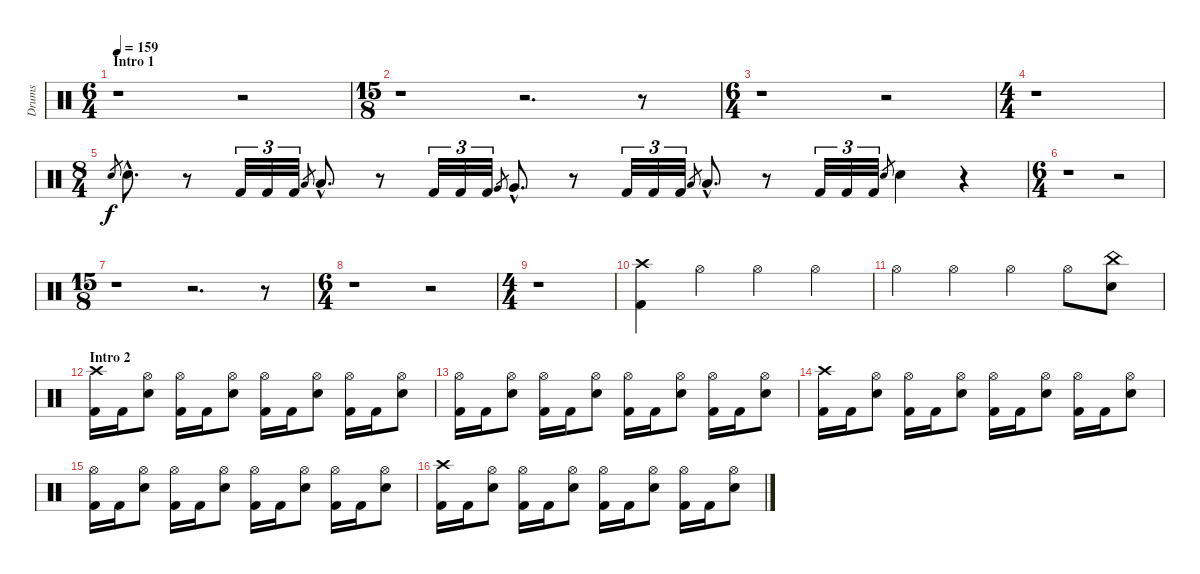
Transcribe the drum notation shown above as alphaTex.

\track ("Drums" "Drums") {instrument percussion}
\staff {score}
\articulation defaults
\ts (6 4)
\section ("" "Intro 1")
\tempo 159
\clef neutral
\ks c
r.1{dy f} r.2 |
\ts (15 8)
r.1 r.2{d} r.8 |
\ts (6 4)
r.1 r.2 |
\ts (4 4)
r.1 |
\ts (8 4)
"Electric Snare (hit)".8{gr} "Electric Snare (hit)"{hac}.8{d} r.8 "Kick (hit) 2".32{tu (3 2)} "Kick (hit) 2".32{tu (3 2)} "Kick (hit) 2".32{tu (3 2)} "Low Tom (hit)".8{gr} "Low Tom (hit)"{hac}.8{d} r.8 "Kick (hit) 2".32{tu (3 2)} "Kick (hit) 2".32{tu (3 2)} "Kick (hit) 2".32{tu (3 2)} "Very Low Tom (hit)".8{gr} "Very Low Tom (hit)"{hac}.8{d} r.8 "Kick (hit) 2".32{tu (3 2)} "Kick (hit) 2".32{tu (3 2)} "Kick (hit) 2".32{tu (3 2)} "Low Floor Tom (hit)".8{gr} "Low Floor Tom (hit)"{hac}.8{d} r.8 "Kick (hit) 2".32{tu (3 2)} "Kick (hit) 2".32{tu (3 2)} "Kick (hit) 2".32{tu (3 2)} "Electric Snare (hit)".8{gr} "Electric Snare (hit)".4 r.4 |
\ts (6 4)
r.1 r.2 |
\ts (15 8)
r.1 r.2{d} r.8 |
\ts (6 4)
r.1 r.2 |
\ts (4 4)
r.1 |
\section ("" "")
("Crash high (hit)" "Kick (hit) 2").4 "Hi-Hat (open)".4 "Hi-Hat (open)".4 "Hi-Hat (open)".4 |
"Hi-Hat (open)".4 "Hi-Hat (open)".4 "Hi-Hat (open)".4 "Hi-Hat (open)".8 ("China (hit)" "Electric Snare (hit)").8 |
\section ("" "Intro 2")
("Crash high (hit)" "Kick (hit) 2").16 "Kick (hit) 2".16 ("Hi-Hat (open)" "Electric Snare (hit)").8 ("Hi-Hat (open)" "Kick (hit) 2").16 "Kick (hit) 2".16 ("Hi-Hat (open)" "Electric Snare (hit)").8 ("Hi-Hat (open)" "Kick (hit) 2").16 "Kick (hit) 2".16 ("Hi-Hat (open)" "Electric Snare (hit)").8 ("Hi-Hat (open)" "Kick (hit) 2").16 "Kick (hit) 2".16 ("Hi-Hat (open)" "Electric Snare (hit)").8 |
("Hi-Hat (open)" "Kick (hit) 2").16 "Kick (hit) 2".16 ("Hi-Hat (open)" "Electric Snare (hit)").8 ("Hi-Hat (open)" "Kick (hit) 2").16 "Kick (hit) 2".16 ("Hi-Hat (open)" "Electric Snare (hit)").8 ("Hi-Hat (open)" "Kick (hit) 2").16 "Kick (hit) 2".16 ("Hi-Hat (open)" "Electric Snare (hit)").8 ("Hi-Hat (open)" "Kick (hit) 2").16 "Kick (hit) 2".16 ("Hi-Hat (open)" "Electric Snare (hit)").8 |
("Crash high (hit)" "Kick (hit) 2").16 "Kick (hit) 2".16 ("Hi-Hat (open)" "Electric Snare (hit)").8 ("Hi-Hat (open)" "Kick (hit) 2").16 "Kick (hit) 2".16 ("Hi-Hat (open)" "Electric Snare (hit)").8 ("Hi-Hat (open)" "Kick (hit) 2").16 "Kick (hit) 2".16 ("Hi-Hat (open)" "Electric Snare (hit)").8 ("Hi-Hat (open)" "Kick (hit) 2").16 "Kick (hit) 2".16 ("Hi-Hat (open)" "Electric Snare (hit)").8 |
("Hi-Hat (open)" "Kick (hit) 2").16 "Kick (hit) 2".16 ("Hi-Hat (open)" "Electric Snare (hit)").8 ("Hi-Hat (open)" "Kick (hit) 2").16 "Kick (hit) 2".16 ("Hi-Hat (open)" "Electric Snare (hit)").8 ("Hi-Hat (open)" "Kick (hit) 2").16 "Kick (hit) 2".16 ("Hi-Hat (open)" "Electric Snare (hit)").8 ("Hi-Hat (open)" "Kick (hit) 2").16 "Kick (hit) 2".16 ("Hi-Hat (open)" "Electric Snare (hit)").8 |
("Crash high (hit)" "Kick (hit) 2").16 "Kick (hit) 2".16 ("Hi-Hat (open)" "Electric Snare (hit)").8 ("Hi-Hat (open)" "Kick (hit) 2").16 "Kick (hit) 2".16 ("Hi-Hat (open)" "Electric Snare (hit)").8 ("Hi-Hat (open)" "Kick (hit) 2").16 "Kick (hit) 2".16 ("Hi-Hat (open)" "Electric Snare (hit)").8 ("Hi-Hat (open)" "Kick (hit) 2").16 "Kick (hit) 2".16 ("Hi-Hat (open)" "Electric Snare (hit)").8
